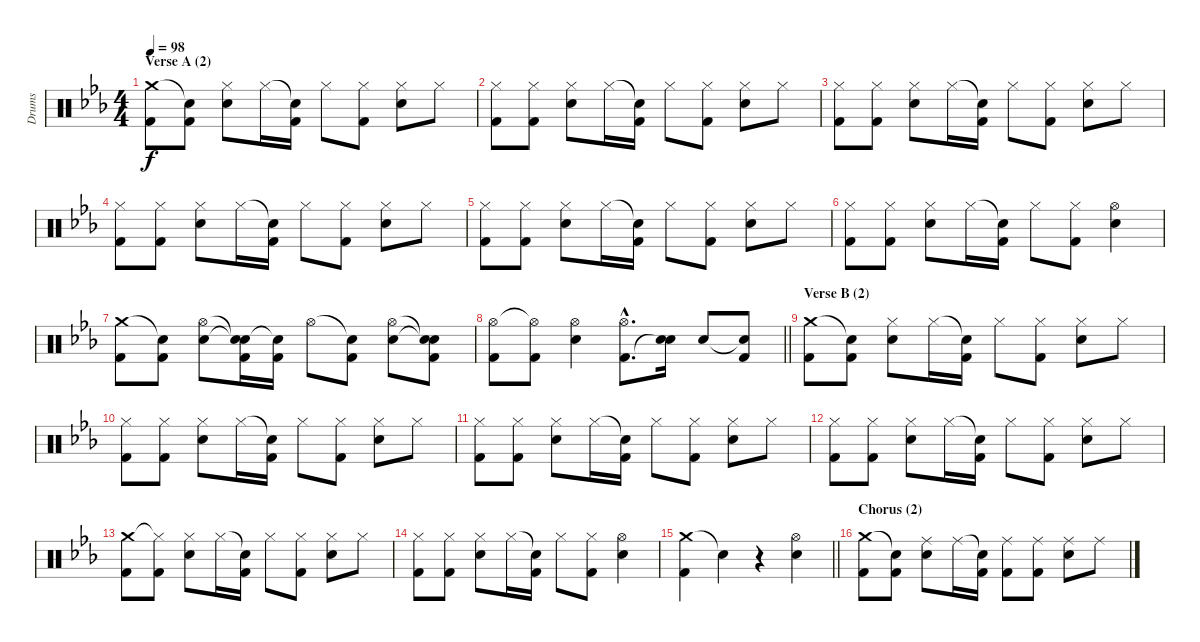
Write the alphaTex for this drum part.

\track ("Drums" "Drums") {instrument percussion}
\staff {score}
\articulation defaults
\ts (4 4)
\section ("" "Verse A (2)")
\tempo 98
\clef neutral
\ks cminor
("Crash medium (hit)" "Kick (hit) 2").8{dy f} ("Snare (hit)"{t} "Kick (hit) 2").8 ("Hi-Hat (closed)" "Electric Snare (hit)").8 "Hi-Hat (closed)".16 ("Snare (hit)"{t} "Kick (hit) 2").16 "Hi-Hat (closed)".8 ("Hi-Hat (closed)" "Kick (hit) 2").8 ("Hi-Hat (closed)" "Electric Snare (hit)").8 "Hi-Hat (closed)".8 |
("Hi-Hat (closed)" "Kick (hit) 2").8 ("Hi-Hat (closed)" "Kick (hit) 2").8 ("Hi-Hat (closed)" "Electric Snare (hit)").8 "Hi-Hat (closed)".16 ("Snare (hit)"{t} "Kick (hit) 2").16 "Hi-Hat (closed)".8 ("Hi-Hat (closed)" "Kick (hit) 2").8 ("Hi-Hat (closed)" "Electric Snare (hit)").8 "Hi-Hat (closed)".8 |
("Hi-Hat (closed)" "Kick (hit) 2").8 ("Hi-Hat (closed)" "Kick (hit) 2").8 ("Hi-Hat (closed)" "Electric Snare (hit)").8 "Hi-Hat (closed)".16 ("Snare (hit)"{t} "Kick (hit) 2").16 "Hi-Hat (closed)".8 ("Hi-Hat (closed)" "Kick (hit) 2").8 ("Hi-Hat (closed)" "Electric Snare (hit)").8 "Hi-Hat (closed)".8 |
("Hi-Hat (closed)" "Kick (hit) 2").8 ("Hi-Hat (closed)" "Kick (hit) 2").8 ("Hi-Hat (closed)" "Electric Snare (hit)").8 "Hi-Hat (closed)".16 ("Snare (hit)"{t} "Kick (hit) 2").16 "Hi-Hat (closed)".8 ("Hi-Hat (closed)" "Kick (hit) 2").8 ("Hi-Hat (closed)" "Electric Snare (hit)").8 "Hi-Hat (closed)".8 |
("Hi-Hat (closed)" "Kick (hit) 2").8 ("Hi-Hat (closed)" "Kick (hit) 2").8 ("Hi-Hat (closed)" "Electric Snare (hit)").8 "Hi-Hat (closed)".16 ("Snare (hit)"{t} "Kick (hit) 2").16 "Hi-Hat (closed)".8 ("Hi-Hat (closed)" "Kick (hit) 2").8 ("Hi-Hat (closed)" "Electric Snare (hit)").8 "Hi-Hat (closed)".8 |
("Hi-Hat (closed)" "Kick (hit) 2").8 ("Hi-Hat (closed)" "Kick (hit) 2").8 ("Hi-Hat (closed)" "Electric Snare (hit)").8 "Hi-Hat (closed)".16 ("Snare (hit)"{t} "Kick (hit) 2").16 "Hi-Hat (closed)".8 ("Hi-Hat (closed)" "Kick (hit) 2").8 ("Hi-Hat (open)" "Electric Snare (hit)").4 |
("Crash medium (hit)" "Kick (hit) 2").8 ("Snare (hit)"{t} "Kick (hit) 2").8 ("Hi-Hat (open)" "Electric Snare (hit)").8 ("Snare (hit)"{t} "Snare (hit)"{t} "Kick (hit) 2").16 ("Snare (hit)"{t} "Kick (hit) 2").16 "Hi-Hat (open)".8 ("Snare (hit)"{t} "Kick (hit) 2").8 ("Hi-Hat (open)" "Electric Snare (hit)").8 ("Snare (hit)"{t} "Snare (hit)"{t} "Kick (hit) 2").8 |
\barLineRight lightlight
("Hi-Hat (open)" "Kick (hit) 2").8 ("Hi-Hat (open)"{t} "Kick (hit) 2").8 ("Hi-Hat (open)" "Electric Snare (hit)").4 ("Hi-Hat (open)"{hac} "Kick (hit) 2"{hac}).8{d} ("Electric Snare (hit)" "Snare (hit)"{t}).16 "Electric Snare (hit)".8 ("Snare (hit)"{t} "Kick (hit) 2").8 |
\section ("" "Verse B (2)")
("Crash medium (hit)" "Kick (hit) 2").8 ("Snare (hit)"{t} "Kick (hit) 2").8 ("Hi-Hat (closed)" "Electric Snare (hit)").8 "Hi-Hat (closed)".16 ("Snare (hit)"{t} "Kick (hit) 2").16 "Hi-Hat (closed)".8 ("Hi-Hat (closed)" "Kick (hit) 2").8 ("Hi-Hat (closed)" "Electric Snare (hit)").8 "Hi-Hat (closed)".8 |
("Hi-Hat (closed)" "Kick (hit) 2").8 ("Hi-Hat (closed)" "Kick (hit) 2").8 ("Hi-Hat (closed)" "Electric Snare (hit)").8 "Hi-Hat (closed)".16 ("Snare (hit)"{t} "Kick (hit) 2").16 "Hi-Hat (closed)".8 ("Hi-Hat (closed)" "Kick (hit) 2").8 ("Hi-Hat (closed)" "Electric Snare (hit)").8 "Hi-Hat (closed)".8 |
("Hi-Hat (closed)" "Kick (hit) 2").8 ("Hi-Hat (closed)" "Kick (hit) 2").8 ("Hi-Hat (closed)" "Electric Snare (hit)").8 "Hi-Hat (closed)".16 ("Snare (hit)"{t} "Kick (hit) 2").16 "Hi-Hat (closed)".8 ("Hi-Hat (closed)" "Kick (hit) 2").8 ("Hi-Hat (closed)" "Electric Snare (hit)").8 "Hi-Hat (closed)".8 |
("Hi-Hat (closed)" "Kick (hit) 2").8 ("Hi-Hat (closed)" "Kick (hit) 2").8 ("Hi-Hat (closed)" "Electric Snare (hit)").8 "Hi-Hat (closed)".16 ("Snare (hit)"{t} "Kick (hit) 2").16 "Hi-Hat (closed)".8 ("Hi-Hat (closed)" "Kick (hit) 2").8 ("Hi-Hat (closed)" "Electric Snare (hit)").8 "Hi-Hat (closed)".8 |
("Crash medium (hit)" "Kick (hit) 2").8 ("Hi-Hat (closed)"{t} "Kick (hit) 2").8 ("Hi-Hat (closed)" "Electric Snare (hit)").8 "Hi-Hat (closed)".16 ("Snare (hit)"{t} "Kick (hit) 2").16 "Hi-Hat (closed)".8 ("Hi-Hat (closed)" "Kick (hit) 2").8 ("Hi-Hat (closed)" "Electric Snare (hit)").8 "Hi-Hat (closed)".8 |
("Hi-Hat (closed)" "Kick (hit) 2").8 ("Hi-Hat (closed)" "Kick (hit) 2").8 ("Hi-Hat (closed)" "Electric Snare (hit)").8 "Hi-Hat (closed)".16 ("Snare (hit)"{t} "Kick (hit) 2").16 "Hi-Hat (closed)".8 ("Hi-Hat (closed)" "Kick (hit) 2").8 ("Hi-Hat (open)" "Electric Snare (hit)").4 |
\barLineRight lightlight
("Crash medium (hit)" "Kick (hit) 2").4 "Snare (hit)"{t}.4 r.4 ("Hi-Hat (open)" "Electric Snare (hit)").4 |
\section ("" "Chorus (2)")
("Crash medium (hit)" "Kick (hit) 2").8 ("Snare (hit)"{t} "Kick (hit) 2").8 ("Ride (middle)" "Electric Snare (hit)").8 "Ride (middle)".16 ("Snare (hit)"{t} "Kick (hit) 2").16 ("Ride (middle)" "Kick (hit) 2").8 ("Ride (middle)" "Kick (hit) 2").8 ("Ride (middle)" "Electric Snare (hit)").8 "Ride (middle)".8
